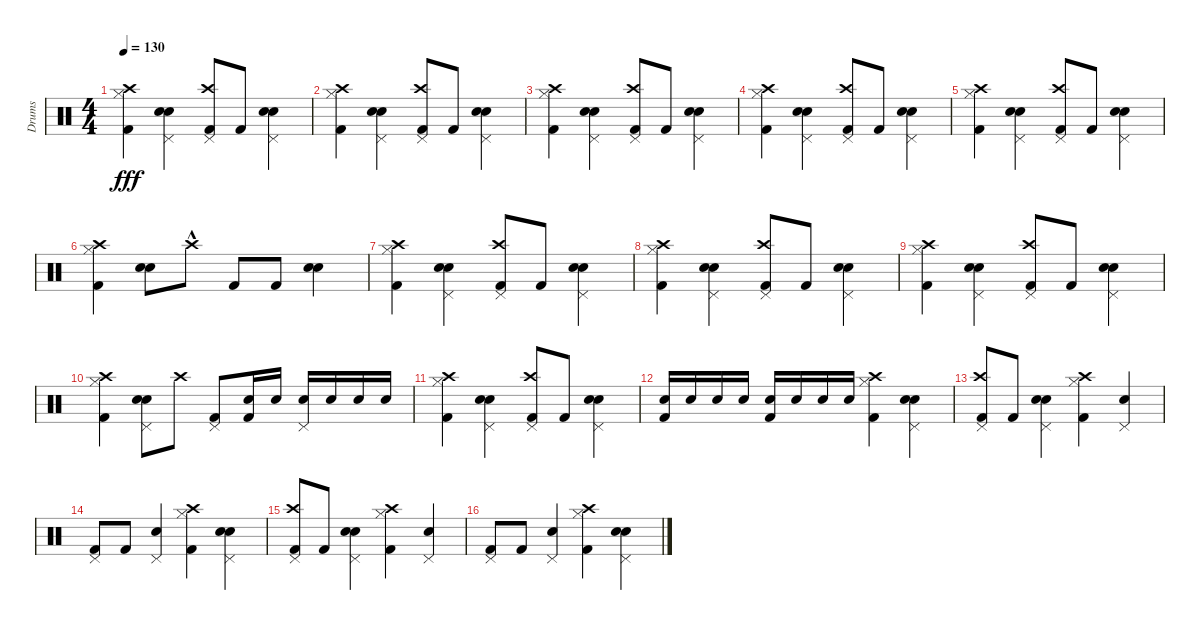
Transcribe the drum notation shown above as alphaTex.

\track ("Drums" "Drums") {instrument percussion}
\staff {score}
\articulation defaults
\ts (4 4)
\tempo 130
\clef neutral
\ks c
("Hi-Hat (closed)" "Kick (hit) 2" "Crash high (hit)").4{dy fff} ("Electric Snare (hit)" "Pedal Hi-Hat (hit)" "Snare (hit) 2").4 ("Pedal Hi-Hat (hit)" "Kick (hit) 2" "Crash high (hit)").8 "Kick (hit) 2".8 ("Electric Snare (hit)" "Pedal Hi-Hat (hit)" "Snare (hit) 2").4 |
("Hi-Hat (closed)" "Kick (hit) 2" "Crash high (hit)").4 ("Electric Snare (hit)" "Pedal Hi-Hat (hit)" "Snare (hit) 2").4 ("Pedal Hi-Hat (hit)" "Kick (hit) 2" "Crash high (hit)").8 "Kick (hit) 2".8 ("Electric Snare (hit)" "Pedal Hi-Hat (hit)" "Snare (hit) 2").4 |
("Hi-Hat (closed)" "Kick (hit) 2" "Crash high (hit)").4 ("Electric Snare (hit)" "Pedal Hi-Hat (hit)" "Snare (hit) 2").4 ("Pedal Hi-Hat (hit)" "Kick (hit) 2" "Crash high (hit)").8 "Kick (hit) 2".8 ("Electric Snare (hit)" "Pedal Hi-Hat (hit)" "Snare (hit) 2").4 |
("Hi-Hat (closed)" "Kick (hit) 2" "Crash high (hit)").4 ("Electric Snare (hit)" "Pedal Hi-Hat (hit)" "Snare (hit) 2").4 ("Pedal Hi-Hat (hit)" "Kick (hit) 2" "Crash high (hit)").8 "Kick (hit) 2".8 ("Electric Snare (hit)" "Pedal Hi-Hat (hit)" "Snare (hit) 2").4 |
("Hi-Hat (closed)" "Kick (hit) 2" "Crash high (hit)").4 ("Electric Snare (hit)" "Pedal Hi-Hat (hit)" "Snare (hit) 2").4 ("Pedal Hi-Hat (hit)" "Kick (hit) 2" "Crash high (hit)").8 "Kick (hit) 2".8 ("Electric Snare (hit)" "Pedal Hi-Hat (hit)" "Snare (hit) 2").4 |
("Hi-Hat (closed)" "Kick (hit) 2" "Crash high (hit)").4 ("Electric Snare (hit)" "Snare (hit) 2").8 "Crash high (hit)"{hac}.8 "Kick (hit) 2".8 "Kick (hit) 2".8 ("Electric Snare (hit)" "Snare (hit) 2").4 |
("Hi-Hat (closed)" "Kick (hit) 2" "Crash high (hit)").4 ("Electric Snare (hit)" "Pedal Hi-Hat (hit)" "Snare (hit) 2").4 ("Pedal Hi-Hat (hit)" "Kick (hit) 2" "Crash high (hit)").8 "Kick (hit) 2".8 ("Electric Snare (hit)" "Pedal Hi-Hat (hit)" "Snare (hit) 2").4 |
("Hi-Hat (closed)" "Kick (hit) 2" "Crash high (hit)").4 ("Electric Snare (hit)" "Pedal Hi-Hat (hit)" "Snare (hit) 2").4 ("Pedal Hi-Hat (hit)" "Kick (hit) 2" "Crash high (hit)").8 "Kick (hit) 2".8 ("Electric Snare (hit)" "Pedal Hi-Hat (hit)" "Snare (hit) 2").4 |
("Hi-Hat (closed)" "Kick (hit) 2" "Crash high (hit)").4 ("Electric Snare (hit)" "Pedal Hi-Hat (hit)" "Snare (hit) 2").4 ("Pedal Hi-Hat (hit)" "Kick (hit) 2" "Crash high (hit)").8 "Kick (hit) 2".8 ("Electric Snare (hit)" "Pedal Hi-Hat (hit)" "Snare (hit) 2").4 |
("Hi-Hat (closed)" "Kick (hit) 2" "Crash high (hit)").4 ("Electric Snare (hit)" "Pedal Hi-Hat (hit)" "Snare (hit) 2").8 "Crash high (hit)".8 ("Pedal Hi-Hat (hit)" "Kick (hit) 2").8 ("Kick (hit) 2" "Snare (hit) 2").16 "Snare (hit) 2".16 ("Pedal Hi-Hat (hit)" "Electric Snare (hit)").16 "Electric Snare (hit)".16 "Electric Snare (hit)".16 "Electric Snare (hit)".16 |
("Hi-Hat (closed)" "Kick (hit) 2" "Crash high (hit)").4 ("Electric Snare (hit)" "Pedal Hi-Hat (hit)" "Snare (hit) 2").4 ("Pedal Hi-Hat (hit)" "Kick (hit) 2" "Crash high (hit)").8 "Kick (hit) 2".8 ("Electric Snare (hit)" "Pedal Hi-Hat (hit)" "Snare (hit) 2").4 |
("Electric Snare (hit)" "Kick (hit) 2").16 "Electric Snare (hit)".16 "Electric Snare (hit)".16 "Electric Snare (hit)".16 ("Snare (hit) 2" "Kick (hit) 2").16 "Snare (hit) 2".16 "Snare (hit) 2".16 "Snare (hit) 2".16 ("Hi-Hat (closed)" "Kick (hit) 2" "Crash high (hit)").4 ("Electric Snare (hit)" "Pedal Hi-Hat (hit)" "Snare (hit) 2").4 |
("Pedal Hi-Hat (hit)" "Kick (hit) 2" "Crash high (hit)").8 "Kick (hit) 2".8 ("Electric Snare (hit)" "Pedal Hi-Hat (hit)" "Snare (hit) 2").4 ("Hi-Hat (closed)" "Kick (hit) 2" "Crash high (hit)").4 ("Electric Snare (hit)" "Pedal Hi-Hat (hit)").4 |
("Pedal Hi-Hat (hit)" "Kick (hit) 2").8 "Kick (hit) 2".8 ("Electric Snare (hit)" "Pedal Hi-Hat (hit)").4 ("Hi-Hat (closed)" "Kick (hit) 2" "Crash high (hit)").4 ("Electric Snare (hit)" "Pedal Hi-Hat (hit)" "Snare (hit) 2").4 |
("Pedal Hi-Hat (hit)" "Kick (hit) 2" "Crash high (hit)").8 "Kick (hit) 2".8 ("Electric Snare (hit)" "Pedal Hi-Hat (hit)" "Snare (hit) 2").4 ("Hi-Hat (closed)" "Kick (hit) 2" "Crash high (hit)").4 ("Electric Snare (hit)" "Pedal Hi-Hat (hit)").4 |
("Pedal Hi-Hat (hit)" "Kick (hit) 2").8 "Kick (hit) 2".8 ("Electric Snare (hit)" "Pedal Hi-Hat (hit)").4 ("Hi-Hat (closed)" "Kick (hit) 2" "Crash high (hit)").4 ("Electric Snare (hit)" "Pedal Hi-Hat (hit)" "Snare (hit) 2").4
